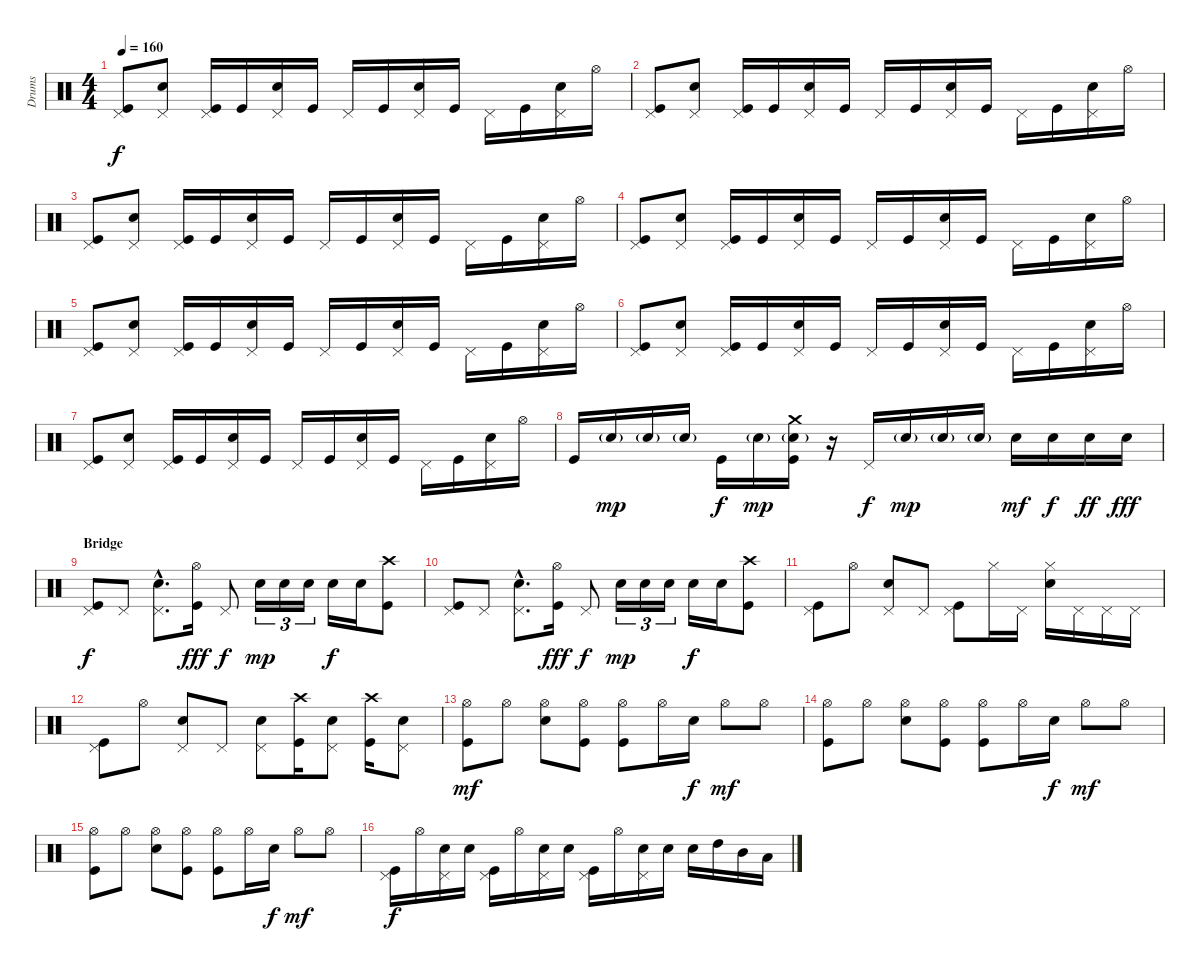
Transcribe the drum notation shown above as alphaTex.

\track ("Drums" "Drums") {instrument percussion}
\staff {score}
\articulation defaults
\ts (4 4)
\tempo 160
\clef neutral
\ks c
("Pedal Hi-Hat (hit)" "Kick (hit)").8{dy f} ("Pedal Hi-Hat (hit)" "Electric Snare (hit)").8 ("Pedal Hi-Hat (hit)" "Kick (hit)").16 "Kick (hit)".16 ("Pedal Hi-Hat (hit)" "Electric Snare (hit)").16 "Kick (hit)".16 "Pedal Hi-Hat (hit)".16 "Kick (hit)".16 ("Pedal Hi-Hat (hit)" "Electric Snare (hit)").16 "Kick (hit)".16 "Pedal Hi-Hat (hit)".16 "Kick (hit)".16 ("Pedal Hi-Hat (hit)" "Electric Snare (hit)").16 "Hi-Hat (open)".16 |
("Pedal Hi-Hat (hit)" "Kick (hit)").8 ("Pedal Hi-Hat (hit)" "Electric Snare (hit)").8 ("Pedal Hi-Hat (hit)" "Kick (hit)").16 "Kick (hit)".16 ("Pedal Hi-Hat (hit)" "Electric Snare (hit)").16 "Kick (hit)".16 "Pedal Hi-Hat (hit)".16 "Kick (hit)".16 ("Pedal Hi-Hat (hit)" "Electric Snare (hit)").16 "Kick (hit)".16 "Pedal Hi-Hat (hit)".16 "Kick (hit)".16 ("Pedal Hi-Hat (hit)" "Electric Snare (hit)").16 "Hi-Hat (open)".16 |
("Pedal Hi-Hat (hit)" "Kick (hit)").8 ("Pedal Hi-Hat (hit)" "Electric Snare (hit)").8 ("Pedal Hi-Hat (hit)" "Kick (hit)").16 "Kick (hit)".16 ("Pedal Hi-Hat (hit)" "Electric Snare (hit)").16 "Kick (hit)".16 "Pedal Hi-Hat (hit)".16 "Kick (hit)".16 ("Pedal Hi-Hat (hit)" "Electric Snare (hit)").16 "Kick (hit)".16 "Pedal Hi-Hat (hit)".16 "Kick (hit)".16 ("Pedal Hi-Hat (hit)" "Electric Snare (hit)").16 "Hi-Hat (open)".16 |
("Pedal Hi-Hat (hit)" "Kick (hit)").8 ("Pedal Hi-Hat (hit)" "Electric Snare (hit)").8 ("Pedal Hi-Hat (hit)" "Kick (hit)").16 "Kick (hit)".16 ("Pedal Hi-Hat (hit)" "Electric Snare (hit)").16 "Kick (hit)".16 "Pedal Hi-Hat (hit)".16 "Kick (hit)".16 ("Pedal Hi-Hat (hit)" "Electric Snare (hit)").16 "Kick (hit)".16 "Pedal Hi-Hat (hit)".16 "Kick (hit)".16 ("Pedal Hi-Hat (hit)" "Electric Snare (hit)").16 "Hi-Hat (open)".16 |
("Pedal Hi-Hat (hit)" "Kick (hit)").8 ("Pedal Hi-Hat (hit)" "Electric Snare (hit)").8 ("Pedal Hi-Hat (hit)" "Kick (hit)").16 "Kick (hit)".16 ("Pedal Hi-Hat (hit)" "Electric Snare (hit)").16 "Kick (hit)".16 "Pedal Hi-Hat (hit)".16 "Kick (hit)".16 ("Pedal Hi-Hat (hit)" "Electric Snare (hit)").16 "Kick (hit)".16 "Pedal Hi-Hat (hit)".16 "Kick (hit)".16 ("Pedal Hi-Hat (hit)" "Electric Snare (hit)").16 "Hi-Hat (open)".16 |
("Pedal Hi-Hat (hit)" "Kick (hit)").8 ("Pedal Hi-Hat (hit)" "Electric Snare (hit)").8 ("Pedal Hi-Hat (hit)" "Kick (hit)").16 "Kick (hit)".16 ("Pedal Hi-Hat (hit)" "Electric Snare (hit)").16 "Kick (hit)".16 "Pedal Hi-Hat (hit)".16 "Kick (hit)".16 ("Pedal Hi-Hat (hit)" "Electric Snare (hit)").16 "Kick (hit)".16 "Pedal Hi-Hat (hit)".16 "Kick (hit)".16 ("Pedal Hi-Hat (hit)" "Electric Snare (hit)").16 "Hi-Hat (open)".16 |
("Pedal Hi-Hat (hit)" "Kick (hit)").8 ("Pedal Hi-Hat (hit)" "Electric Snare (hit)").8 ("Pedal Hi-Hat (hit)" "Kick (hit)").16 "Kick (hit)".16 ("Pedal Hi-Hat (hit)" "Electric Snare (hit)").16 "Kick (hit)".16 "Pedal Hi-Hat (hit)".16 "Kick (hit)".16 ("Pedal Hi-Hat (hit)" "Electric Snare (hit)").16 "Kick (hit)".16 "Pedal Hi-Hat (hit)".16 "Kick (hit)".16 ("Pedal Hi-Hat (hit)" "Electric Snare (hit)").16 "Hi-Hat (open)".16 |
"Kick (hit)".16 "Electric Snare (hit)"{g}.16{dy mp} "Electric Snare (hit)"{g}.16 "Electric Snare (hit)"{g}.16 "Kick (hit)".16{dy f} "Electric Snare (hit)"{g}.16{dy mp} ("Crash medium (hit)" "Electric Snare (hit)"{g} "Kick (hit)").16 r.16 "Pedal Hi-Hat (hit)".16{dy f} "Electric Snare (hit)"{g}.16{dy mp} "Electric Snare (hit)"{g}.16 "Electric Snare (hit)"{g}.16 "Electric Snare (hit)".16{dy mf} "Electric Snare (hit)".16{dy f} "Electric Snare (hit)".16{dy ff} "Electric Snare (hit)".16{dy fff} |
\section ("" "Bridge")
("Pedal Hi-Hat (hit)" "Kick (hit)").8{dy f} "Pedal Hi-Hat (hit)".8 ("Pedal Hi-Hat (hit)"{hac} "Electric Snare (hit)"{hac}).8{d} ("Hi-Hat (open)" "Kick (hit)").16{dy fff} "Pedal Hi-Hat (hit)".8{dy f} "Electric Snare (hit)".16{tu (3 2) dy mp} "Electric Snare (hit)".16{tu (3 2)} "Electric Snare (hit)".16{tu (3 2)} "Electric Snare (hit)".16{dy f} "Electric Snare (hit)".16 ("Crash high (hit)" "Kick (hit)").8 |
("Pedal Hi-Hat (hit)" "Kick (hit)").8 "Pedal Hi-Hat (hit)".8 ("Pedal Hi-Hat (hit)"{hac} "Electric Snare (hit)"{hac}).8{d} ("Hi-Hat (open)" "Kick (hit)").16{dy fff} "Pedal Hi-Hat (hit)".8{dy f} "Electric Snare (hit)".16{tu (3 2) dy mp} "Electric Snare (hit)".16{tu (3 2)} "Electric Snare (hit)".16{tu (3 2)} "Electric Snare (hit)".16{dy f} "Electric Snare (hit)".16 ("Crash high (hit)" "Kick (hit)").8 |
("Pedal Hi-Hat (hit)" "Kick (hit)").8 "Hi-Hat (open)".8 ("Pedal Hi-Hat (hit)" "Electric Snare (hit)").8 "Pedal Hi-Hat (hit)".8 ("Pedal Hi-Hat (hit)" "Kick (hit)").8 "Hi-Hat (closed)".16 "Pedal Hi-Hat (hit)".16 ("Hi-Hat (closed)" "Electric Snare (hit)").16 "Pedal Hi-Hat (hit)".16 "Pedal Hi-Hat (hit)".16 "Pedal Hi-Hat (hit)".16 |
("Pedal Hi-Hat (hit)" "Kick (hit)").8 "Hi-Hat (open)".8 ("Pedal Hi-Hat (hit)" "Electric Snare (hit)").8 "Pedal Hi-Hat (hit)".8 ("Pedal Hi-Hat (hit)" "Electric Snare (hit)").8 ("Crash high (hit)" "Kick (hit)").16 ("Pedal Hi-Hat (hit)" "Electric Snare (hit)").8 ("Crash high (hit)" "Kick (hit)").16 ("Pedal Hi-Hat (hit)" "Electric Snare (hit)").8 |
("Hi-Hat (open)" "Kick (hit)").8{dy mf} "Hi-Hat (open)".8 ("Hi-Hat (open)" "Electric Snare (hit)").8 ("Hi-Hat (open)" "Kick (hit)").8 ("Hi-Hat (open)" "Kick (hit)").8 "Hi-Hat (open)".16 "Electric Snare (hit)".16{dy f} "Hi-Hat (open)".8{dy mf} "Hi-Hat (open)".8 |
("Hi-Hat (open)" "Kick (hit)").8 "Hi-Hat (open)".8 ("Hi-Hat (open)" "Electric Snare (hit)").8 ("Hi-Hat (open)" "Kick (hit)").8 ("Hi-Hat (open)" "Kick (hit)").8 "Hi-Hat (open)".16 "Electric Snare (hit)".16{dy f} "Hi-Hat (open)".8{dy mf} "Hi-Hat (open)".8 |
("Hi-Hat (open)" "Kick (hit)").8 "Hi-Hat (open)".8 ("Hi-Hat (open)" "Electric Snare (hit)").8 ("Hi-Hat (open)" "Kick (hit)").8 ("Hi-Hat (open)" "Kick (hit)").8 "Hi-Hat (open)".16 "Electric Snare (hit)".16{dy f} "Hi-Hat (open)".8{dy mf} "Hi-Hat (open)".8 |
("Pedal Hi-Hat (hit)" "Kick (hit)").16{dy f} "Hi-Hat (open)".16 ("Pedal Hi-Hat (hit)" "Electric Snare (hit)").16 "Electric Snare (hit)".16 ("Pedal Hi-Hat (hit)" "Kick (hit)").16 "Hi-Hat (open)".16 ("Pedal Hi-Hat (hit)" "Electric Snare (hit)").16 "Electric Snare (hit)".16 ("Pedal Hi-Hat (hit)" "Kick (hit)").16 "Hi-Hat (open)".16 ("Pedal Hi-Hat (hit)" "Electric Snare (hit)").16 "Electric Snare (hit)".16 "Electric Snare (hit)".16 "High Tom (hit)".16 "Mid Tom (hit)".16 "Low Tom (hit)".16
